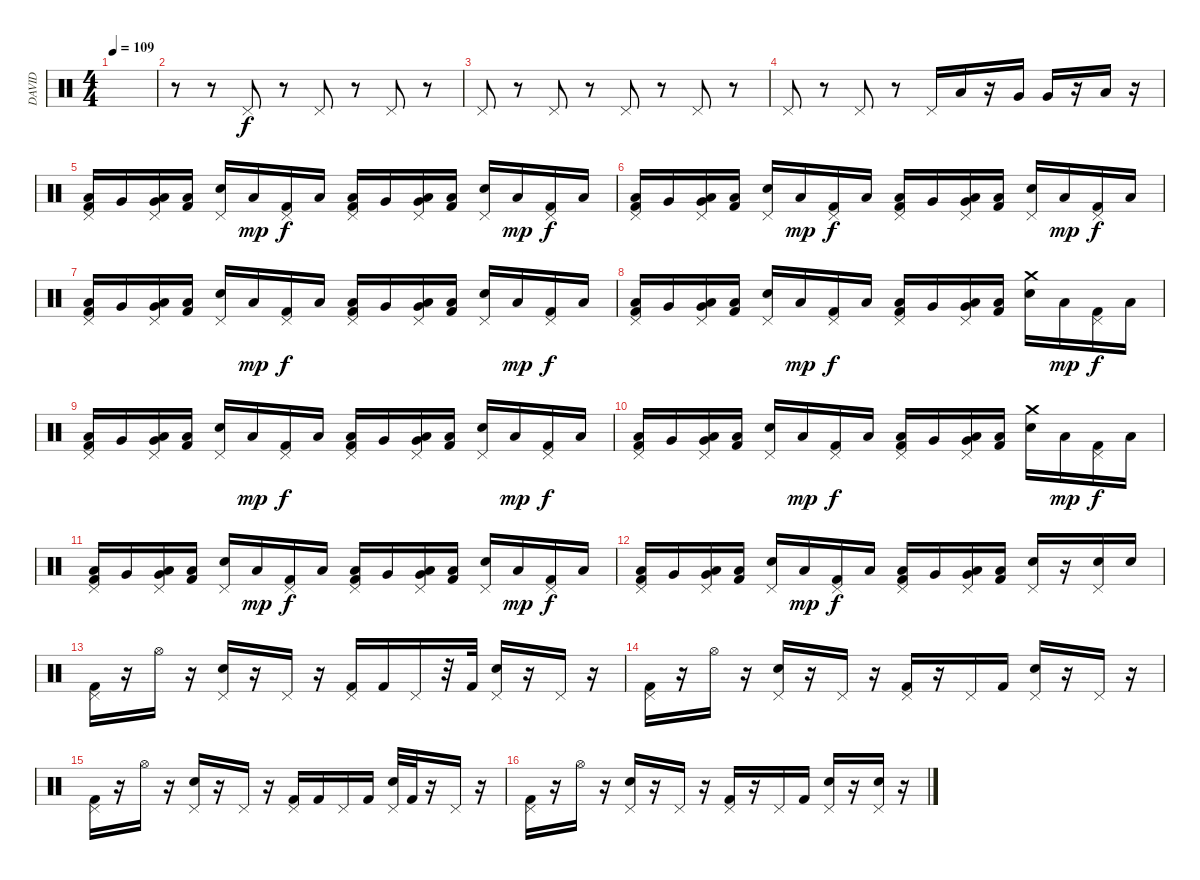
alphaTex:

\track ("DAVID" "DAVID") {instrument percussion}
\staff {score}
\articulation defaults
\ts (4 4)
\tempo 109
\clef neutral
\ks c
|
r.8 r.8 "Pedal Hi-Hat (hit)".8 r.8 "Pedal Hi-Hat (hit)".8 r.8 "Pedal Hi-Hat (hit)".8 r.8 |
"Pedal Hi-Hat (hit)".8 r.8 "Pedal Hi-Hat (hit)".8 r.8 "Pedal Hi-Hat (hit)".8 r.8 "Pedal Hi-Hat (hit)".8 r.8 |
"Pedal Hi-Hat (hit)".8 r.8 "Pedal Hi-Hat (hit)".8 r.8 "Pedal Hi-Hat (hit)".16 "Low Tom (hit)".16 r.16 "Very Low Tom (hit)".16 "Very Low Tom (hit)".16 r.16 "Low Floor Tom (hit)".16 r.16 |
("Pedal Hi-Hat (hit)" "Low Tom (hit)" "Kick (hit) 2").16 "Very Low Tom (hit)".16 ("Pedal Hi-Hat (hit)" "Very Low Tom (hit)" "Low Floor Tom (hit)").16 ("Low Floor Tom (hit)" "Kick (hit) 2").16 ("Pedal Hi-Hat (hit)" "Snare (hit) 2").16 "Low Floor Tom (hit)".16{dy mp} ("Pedal Hi-Hat (hit)" "Kick (hit) 2").16{dy f} "Low Tom (hit)".16 ("Pedal Hi-Hat (hit)" "Low Tom (hit)" "Kick (hit) 2").16 "Very Low Tom (hit)".16 ("Pedal Hi-Hat (hit)" "Very Low Tom (hit)" "Low Floor Tom (hit)").16 ("Low Floor Tom (hit)" "Kick (hit) 2").16 ("Pedal Hi-Hat (hit)" "Snare (hit) 2").16 "Low Floor Tom (hit)".16{dy mp} ("Pedal Hi-Hat (hit)" "Kick (hit) 2").16{dy f} "Low Tom (hit)".16 |
("Pedal Hi-Hat (hit)" "Low Tom (hit)" "Kick (hit) 2").16 "Very Low Tom (hit)".16 ("Pedal Hi-Hat (hit)" "Very Low Tom (hit)" "Low Floor Tom (hit)").16 ("Low Floor Tom (hit)" "Kick (hit) 2").16 ("Pedal Hi-Hat (hit)" "Snare (hit) 2").16 "Low Floor Tom (hit)".16{dy mp} ("Pedal Hi-Hat (hit)" "Kick (hit) 2").16{dy f} "Low Tom (hit)".16 ("Pedal Hi-Hat (hit)" "Low Tom (hit)" "Kick (hit) 2").16 "Very Low Tom (hit)".16 ("Pedal Hi-Hat (hit)" "Very Low Tom (hit)" "Low Floor Tom (hit)").16 ("Low Floor Tom (hit)" "Kick (hit) 2").16 ("Pedal Hi-Hat (hit)" "Snare (hit) 2").16 "Low Floor Tom (hit)".16{dy mp} ("Pedal Hi-Hat (hit)" "Kick (hit) 2").16{dy f} "Low Tom (hit)".16 |
("Pedal Hi-Hat (hit)" "Low Tom (hit)" "Kick (hit) 2").16 "Very Low Tom (hit)".16 ("Pedal Hi-Hat (hit)" "Very Low Tom (hit)" "Low Floor Tom (hit)").16 ("Low Floor Tom (hit)" "Kick (hit) 2").16 ("Pedal Hi-Hat (hit)" "Snare (hit) 2").16 "Low Floor Tom (hit)".16{dy mp} ("Pedal Hi-Hat (hit)" "Kick (hit) 2").16{dy f} "Low Tom (hit)".16 ("Pedal Hi-Hat (hit)" "Low Tom (hit)" "Kick (hit) 2").16 "Very Low Tom (hit)".16 ("Pedal Hi-Hat (hit)" "Very Low Tom (hit)" "Low Floor Tom (hit)").16 ("Low Floor Tom (hit)" "Kick (hit) 2").16 ("Pedal Hi-Hat (hit)" "Snare (hit) 2").16 "Low Floor Tom (hit)".16{dy mp} ("Pedal Hi-Hat (hit)" "Kick (hit) 2").16{dy f} "Low Tom (hit)".16 |
("Pedal Hi-Hat (hit)" "Low Tom (hit)" "Kick (hit) 2").16 "Very Low Tom (hit)".16 ("Pedal Hi-Hat (hit)" "Very Low Tom (hit)" "Low Floor Tom (hit)").16 ("Low Floor Tom (hit)" "Kick (hit) 2").16 ("Pedal Hi-Hat (hit)" "Snare (hit) 2").16 "Low Floor Tom (hit)".16{dy mp} ("Pedal Hi-Hat (hit)" "Kick (hit) 2").16{dy f} "Low Tom (hit)".16 ("Pedal Hi-Hat (hit)" "Low Tom (hit)" "Kick (hit) 2").16 "Very Low Tom (hit)".16 ("Pedal Hi-Hat (hit)" "Very Low Tom (hit)" "Low Floor Tom (hit)").16 ("Low Floor Tom (hit)" "Kick (hit) 2").16 ("Crash medium (hit)" "Snare (hit) 2").16 "Low Floor Tom (hit)".16{dy mp} ("Pedal Hi-Hat (hit)" "Kick (hit) 2").16{dy f} "Low Tom (hit)".16 |
("Pedal Hi-Hat (hit)" "Low Tom (hit)" "Kick (hit) 2").16 "Very Low Tom (hit)".16 ("Pedal Hi-Hat (hit)" "Very Low Tom (hit)" "Low Floor Tom (hit)").16 ("Low Floor Tom (hit)" "Kick (hit) 2").16 ("Pedal Hi-Hat (hit)" "Snare (hit) 2").16 "Low Floor Tom (hit)".16{dy mp} ("Pedal Hi-Hat (hit)" "Kick (hit) 2").16{dy f} "Low Tom (hit)".16 ("Pedal Hi-Hat (hit)" "Low Tom (hit)" "Kick (hit) 2").16 "Very Low Tom (hit)".16 ("Pedal Hi-Hat (hit)" "Very Low Tom (hit)" "Low Floor Tom (hit)").16 ("Low Floor Tom (hit)" "Kick (hit) 2").16 ("Pedal Hi-Hat (hit)" "Snare (hit) 2").16 "Low Floor Tom (hit)".16{dy mp} ("Pedal Hi-Hat (hit)" "Kick (hit) 2").16{dy f} "Low Tom (hit)".16 |
("Pedal Hi-Hat (hit)" "Low Tom (hit)" "Kick (hit) 2").16 "Very Low Tom (hit)".16 ("Pedal Hi-Hat (hit)" "Very Low Tom (hit)" "Low Floor Tom (hit)").16 ("Low Floor Tom (hit)" "Kick (hit) 2").16 ("Pedal Hi-Hat (hit)" "Snare (hit) 2").16 "Low Floor Tom (hit)".16{dy mp} ("Pedal Hi-Hat (hit)" "Kick (hit) 2").16{dy f} "Low Tom (hit)".16 ("Pedal Hi-Hat (hit)" "Low Tom (hit)" "Kick (hit) 2").16 "Very Low Tom (hit)".16 ("Pedal Hi-Hat (hit)" "Very Low Tom (hit)" "Low Floor Tom (hit)").16 ("Low Floor Tom (hit)" "Kick (hit) 2").16 ("Crash medium (hit)" "Snare (hit) 2").16 "Low Floor Tom (hit)".16{dy mp} ("Pedal Hi-Hat (hit)" "Kick (hit) 2").16{dy f} "Low Tom (hit)".16 |
("Pedal Hi-Hat (hit)" "Low Tom (hit)" "Kick (hit) 2").16 "Very Low Tom (hit)".16 ("Pedal Hi-Hat (hit)" "Very Low Tom (hit)" "Low Floor Tom (hit)").16 ("Low Floor Tom (hit)" "Kick (hit) 2").16 ("Pedal Hi-Hat (hit)" "Snare (hit) 2").16 "Low Floor Tom (hit)".16{dy mp} ("Pedal Hi-Hat (hit)" "Kick (hit) 2").16{dy f} "Low Tom (hit)".16 ("Pedal Hi-Hat (hit)" "Low Tom (hit)" "Kick (hit) 2").16 "Very Low Tom (hit)".16 ("Pedal Hi-Hat (hit)" "Very Low Tom (hit)" "Low Floor Tom (hit)").16 ("Low Floor Tom (hit)" "Kick (hit) 2").16 ("Pedal Hi-Hat (hit)" "Snare (hit) 2").16 "Low Floor Tom (hit)".16{dy mp} ("Pedal Hi-Hat (hit)" "Kick (hit) 2").16{dy f} "Low Tom (hit)".16 |
("Pedal Hi-Hat (hit)" "Low Tom (hit)" "Kick (hit) 2").16 "Very Low Tom (hit)".16 ("Pedal Hi-Hat (hit)" "Very Low Tom (hit)" "Low Floor Tom (hit)").16 ("Low Floor Tom (hit)" "Kick (hit) 2").16 ("Pedal Hi-Hat (hit)" "Snare (hit) 2").16 "Low Floor Tom (hit)".16{dy mp} ("Pedal Hi-Hat (hit)" "Kick (hit) 2").16{dy f} "Low Tom (hit)".16 ("Pedal Hi-Hat (hit)" "Low Tom (hit)" "Kick (hit) 2").16 "Very Low Tom (hit)".16 ("Pedal Hi-Hat (hit)" "Very Low Tom (hit)" "Low Floor Tom (hit)").16 ("Low Floor Tom (hit)" "Kick (hit) 2").16 ("Pedal Hi-Hat (hit)" "Snare (hit) 2").16 r.16 ("Pedal Hi-Hat (hit)" "Snare (hit) 2").16 "Snare (hit) 2".16 |
("Pedal Hi-Hat (hit)" "Kick (hit) 2").16 r.16 "Hi-Hat (open)".16 r.16 ("Pedal Hi-Hat (hit)" "Snare (hit) 2").16 r.16 "Pedal Hi-Hat (hit)".16 r.16 ("Pedal Hi-Hat (hit)" "Kick (hit) 2").16 "Kick (hit) 2".16 "Pedal Hi-Hat (hit)".16 r.32 "Kick (hit) 2".32 ("Pedal Hi-Hat (hit)" "Snare (hit) 2").16 r.16 "Pedal Hi-Hat (hit)".16 r.16 |
("Pedal Hi-Hat (hit)" "Kick (hit) 2").16 r.16 "Hi-Hat (open)".16 r.16 ("Pedal Hi-Hat (hit)" "Snare (hit) 2").16 r.16 "Pedal Hi-Hat (hit)".16 r.16 ("Pedal Hi-Hat (hit)" "Kick (hit) 2").16 r.16 "Pedal Hi-Hat (hit)".16 "Kick (hit) 2".16 ("Pedal Hi-Hat (hit)" "Snare (hit) 2").16 r.16 "Pedal Hi-Hat (hit)".16 r.16 |
("Pedal Hi-Hat (hit)" "Kick (hit) 2").16 r.16 "Hi-Hat (open)".16 r.16 ("Pedal Hi-Hat (hit)" "Snare (hit) 2").16 r.16 "Pedal Hi-Hat (hit)".16 r.16 ("Pedal Hi-Hat (hit)" "Kick (hit) 2").16 "Kick (hit) 2".16 "Pedal Hi-Hat (hit)".16 "Kick (hit) 2".16 ("Pedal Hi-Hat (hit)" "Snare (hit) 2").32 "Kick (hit) 2".32 r.16 "Pedal Hi-Hat (hit)".16 r.16 |
("Pedal Hi-Hat (hit)" "Kick (hit) 2").16 r.16 "Hi-Hat (open)".16 r.16 ("Pedal Hi-Hat (hit)" "Snare (hit) 2").16 r.16 "Pedal Hi-Hat (hit)".16 r.16 ("Pedal Hi-Hat (hit)" "Kick (hit) 2").16 r.16 "Pedal Hi-Hat (hit)".16 "Kick (hit) 2".16 ("Pedal Hi-Hat (hit)" "Snare (hit) 2").16 r.16 ("Pedal Hi-Hat (hit)" "Snare (hit) 2").16 r.16
